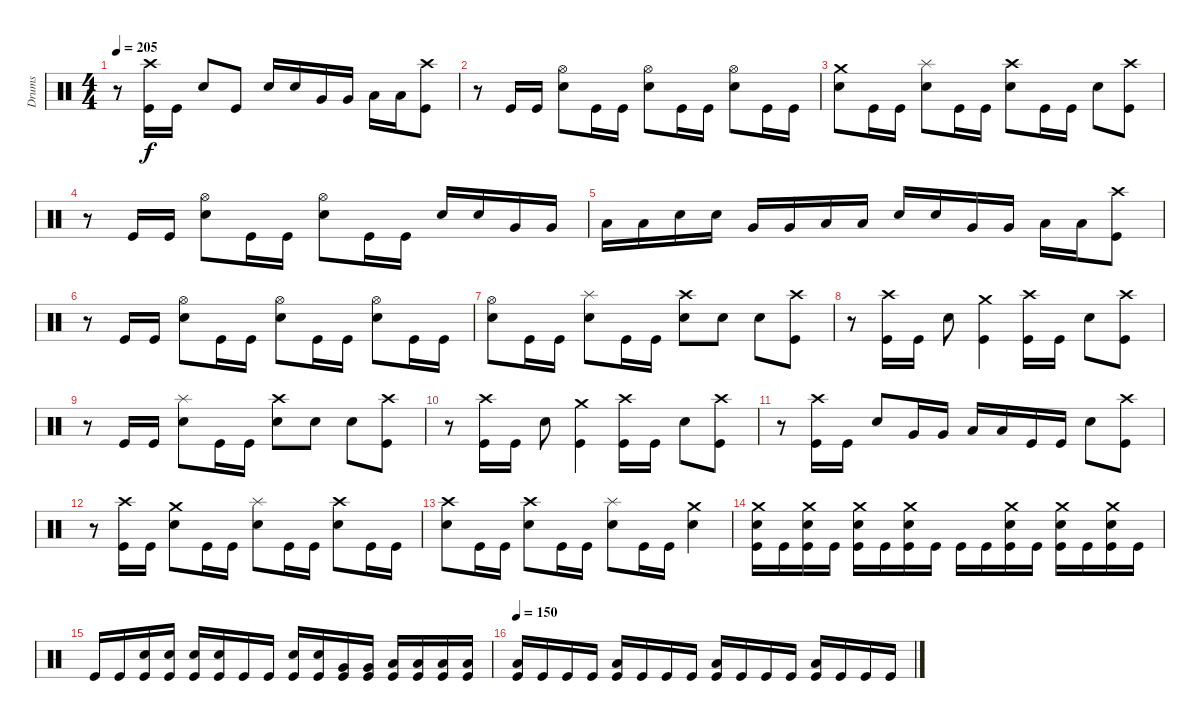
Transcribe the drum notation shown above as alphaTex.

\track ("Drums" "Drums") {instrument percussion}
\staff {score}
\articulation defaults
\ts (4 4)
\tempo 205
\clef neutral
\ks c
r.8{dy f} ("Crash high (hit)" "Kick (hit)").16 "Kick (hit)".16 "Electric Snare (hit)".8 "Kick (hit)".8 "Electric Snare (hit)".16 "Electric Snare (hit)".16 "Very Low Tom (hit)".16 "Very Low Tom (hit)".16 "Low Floor Tom (hit)".16 "Low Floor Tom (hit)".16 ("Crash high (hit)" "Kick (hit)").8 |
r.8 "Kick (hit)".16 "Kick (hit)".16 ("Hi-Hat (open)" "Electric Snare (hit)").8 "Kick (hit)".16 "Kick (hit)".16 ("Hi-Hat (open)" "Electric Snare (hit)").8 "Kick (hit)".16 "Kick (hit)".16 ("Hi-Hat (open)" "Electric Snare (hit)").8 "Kick (hit)".16 "Kick (hit)".16 |
("Crash medium (hit)" "Electric Snare (hit)").8 "Kick (hit)".16 "Kick (hit)".16 ("Splash (hit)" "Electric Snare (hit)").8 "Kick (hit)".16 "Kick (hit)".16 ("Crash high (hit)" "Electric Snare (hit)").8 "Kick (hit)".16 "Kick (hit)".16 "Electric Snare (hit)".8 ("Crash high (hit)" "Kick (hit)").8 |
r.8 "Kick (hit)".16 "Kick (hit)".16 ("Hi-Hat (open)" "Electric Snare (hit)").8 "Kick (hit)".16 "Kick (hit)".16 ("Hi-Hat (open)" "Electric Snare (hit)").8 "Kick (hit)".16 "Kick (hit)".16 "Electric Snare (hit)".16 "Electric Snare (hit)".16 "Very Low Tom (hit)".16 "Very Low Tom (hit)".16 |
"Low Floor Tom (hit)".16 "Low Floor Tom (hit)".16 "Electric Snare (hit)".16 "Electric Snare (hit)".16 "Very Low Tom (hit)".16 "Very Low Tom (hit)".16 "Low Floor Tom (hit)".16 "Low Floor Tom (hit)".16 "Electric Snare (hit)".16 "Electric Snare (hit)".16 "Very Low Tom (hit)".16 "Very Low Tom (hit)".16 "Low Floor Tom (hit)".16 "Low Floor Tom (hit)".16 ("Crash high (hit)" "Kick (hit)").8 |
r.8 "Kick (hit)".16 "Kick (hit)".16 ("Hi-Hat (open)" "Electric Snare (hit)").8 "Kick (hit)".16 "Kick (hit)".16 ("Hi-Hat (open)" "Electric Snare (hit)").8 "Kick (hit)".16 "Kick (hit)".16 ("Hi-Hat (open)" "Electric Snare (hit)").8 "Kick (hit)".16 "Kick (hit)".16 |
("Hi-Hat (open)" "Electric Snare (hit)").8 "Kick (hit)".16 "Kick (hit)".16 ("Splash (hit)" "Electric Snare (hit)").8 "Kick (hit)".16 "Kick (hit)".16 ("Crash high (hit)" "Electric Snare (hit)").8 "Electric Snare (hit)".8 "Electric Snare (hit)".8 ("Crash high (hit)" "Kick (hit)").8 |
r.8 ("Crash high (hit)" "Kick (hit)").16 "Kick (hit)".16 "Electric Snare (hit)".8 ("Crash medium (hit)" "Kick (hit)").4 ("Crash high (hit)" "Kick (hit)").16 "Kick (hit)".16 "Electric Snare (hit)".8 ("Crash high (hit)" "Kick (hit)").8 |
r.8 "Kick (hit)".16 "Kick (hit)".16 ("Splash (hit)" "Electric Snare (hit)").8 "Kick (hit)".16 "Kick (hit)".16 ("Crash high (hit)" "Electric Snare (hit)").8 "Electric Snare (hit)".8 "Electric Snare (hit)".8 ("Crash high (hit)" "Kick (hit)").8 |
r.8 ("Crash high (hit)" "Kick (hit)").16 "Kick (hit)".16 "Electric Snare (hit)".8 ("Crash medium (hit)" "Kick (hit)").4 ("Crash high (hit)" "Kick (hit)").16 "Kick (hit)".16 "Electric Snare (hit)".8 ("Crash high (hit)" "Kick (hit)").8 |
r.8 ("Crash high (hit)" "Kick (hit)").16 "Kick (hit)".16 "Electric Snare (hit)".8 "Very Low Tom (hit)".16 "Very Low Tom (hit)".16 "Low Floor Tom (hit)".16 "Low Floor Tom (hit)".16 "Kick (hit)".16 "Kick (hit)".16 "Electric Snare (hit)".8 ("Crash high (hit)" "Kick (hit)").8 |
r.8 ("Crash high (hit)" "Kick (hit)").16 "Kick (hit)".16 ("Crash medium (hit)" "Electric Snare (hit)").8 "Kick (hit)".16 "Kick (hit)".16 ("Splash (hit)" "Electric Snare (hit)").8 "Kick (hit)".16 "Kick (hit)".16 ("Crash high (hit)" "Electric Snare (hit)").8 "Kick (hit)".16 "Kick (hit)".16 |
("Crash high (hit)" "Electric Snare (hit)").8 "Kick (hit)".16 "Kick (hit)".16 ("Crash high (hit)" "Electric Snare (hit)").8 "Kick (hit)".16 "Kick (hit)".16 ("Splash (hit)" "Electric Snare (hit)").8 "Kick (hit)".16 "Kick (hit)".16 ("Crash medium (hit)" "Electric Snare (hit)").4 |
("Crash medium (hit)" "Electric Snare (hit)" "Kick (hit)").16 "Kick (hit)".16 ("Crash medium (hit)" "Electric Snare (hit)" "Kick (hit)").16 "Kick (hit)".16 ("Crash medium (hit)" "Electric Snare (hit)" "Kick (hit)").16 "Kick (hit)".16 ("Crash medium (hit)" "Electric Snare (hit)" "Kick (hit)").16 "Kick (hit)".16 "Kick (hit)".16 "Kick (hit)".16 ("Crash medium (hit)" "Electric Snare (hit)" "Kick (hit)").16 "Kick (hit)".16 ("Crash medium (hit)" "Electric Snare (hit)" "Kick (hit)").16 "Kick (hit)".16 ("Crash medium (hit)" "Electric Snare (hit)" "Kick (hit)").16 "Kick (hit)".16 |
"Kick (hit)".16 "Kick (hit)".16 ("Electric Snare (hit)" "Kick (hit)").16 ("Electric Snare (hit)" "Kick (hit)").16 ("Electric Snare (hit)" "Kick (hit)").16 ("Electric Snare (hit)" "Kick (hit)").16 "Kick (hit)".16 "Kick (hit)".16 ("Electric Snare (hit)" "Kick (hit)").16 ("Electric Snare (hit)" "Kick (hit)").16 ("Kick (hit)" "Very Low Tom (hit)").16 ("Kick (hit)" "Very Low Tom (hit)").16 ("Kick (hit)" "Low Floor Tom (hit)").16 ("Kick (hit)" "Low Floor Tom (hit)").16 ("Kick (hit)" "Low Floor Tom (hit)").16 ("Kick (hit)" "Low Floor Tom (hit)").16 |
\tempo 150
("Kick (hit)" "Low Floor Tom (hit)").16 "Kick (hit)".16 "Kick (hit)".16 "Kick (hit)".16 ("Kick (hit)" "Low Floor Tom (hit)").16 "Kick (hit)".16 "Kick (hit)".16 "Kick (hit)".16 ("Kick (hit)" "Low Floor Tom (hit)").16 "Kick (hit)".16 "Kick (hit)".16 "Kick (hit)".16 ("Kick (hit)" "Low Floor Tom (hit)").16 "Kick (hit)".16 "Kick (hit)".16 "Kick (hit)".16
